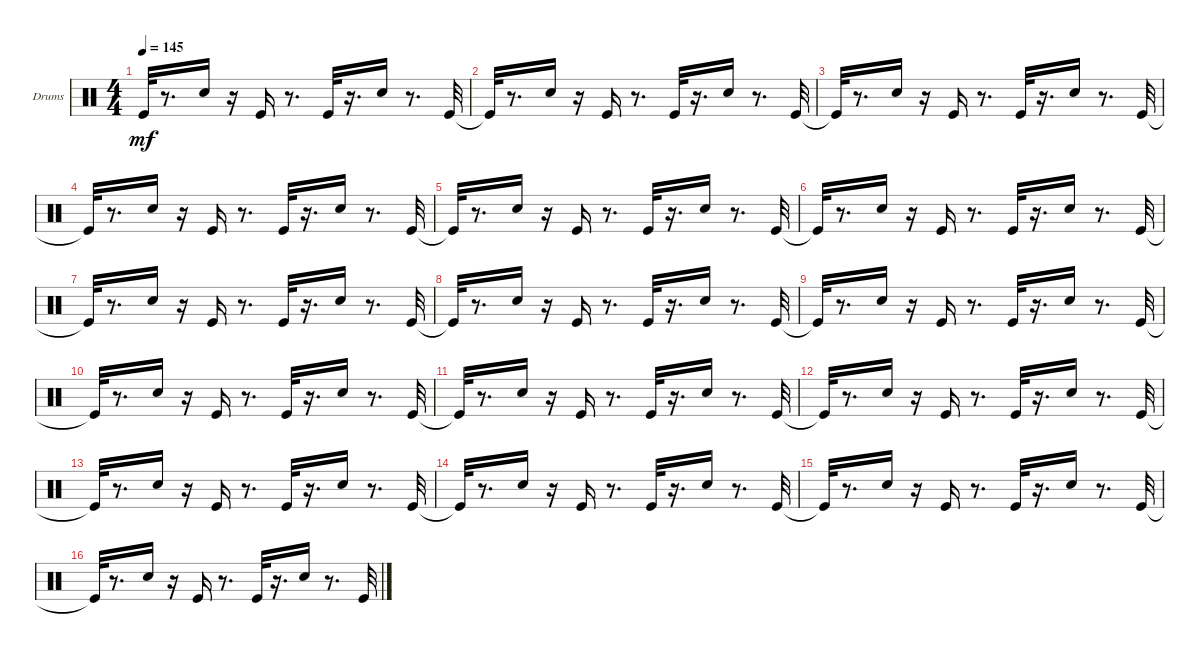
\bracketExtendMode groupsimilarinstruments
\firstSystemTrackNameOrientation horizontal
\otherSystemsTrackNameOrientation horizontal
\track ("Drums" "Drums") {instrument percussion}
\staff {score}
\articulation defaults
\ts (4 4)
\tempo 145
\clef neutral
\ks c "Kick (hit)"{t}.32{dy mf}
r.8{d} "Snare (hit) 2".16 r.16 "Kick (hit)".16 r.8{d} "Kick (hit)".32 r.16{d} "Snare (hit) 2".16 r.8{d} "Kick (hit)".32 |
"Kick (hit)"{t}.32 r.8{d} "Snare (hit) 2".16 r.16 "Kick (hit)".16 r.8{d} "Kick (hit)".32 r.16{d} "Snare (hit) 2".16 r.8{d} "Kick (hit)".32 |
"Kick (hit)"{t}.32 r.8{d} "Snare (hit) 2".16 r.16 "Kick (hit)".16 r.8{d} "Kick (hit)".32 r.16{d} "Snare (hit) 2".16 r.8{d} "Kick (hit)".32 |
"Kick (hit)"{t}.32 r.8{d} "Snare (hit) 2".16 r.16 "Kick (hit)".16 r.8{d} "Kick (hit)".32 r.16{d} "Snare (hit) 2".16 r.8{d} "Kick (hit)".32 |
"Kick (hit)"{t}.32 r.8{d} "Snare (hit) 2".16 r.16 "Kick (hit)".16 r.8{d} "Kick (hit)".32 r.16{d} "Snare (hit) 2".16 r.8{d} "Kick (hit)".32 |
"Kick (hit)"{t}.32 r.8{d} "Snare (hit) 2".16 r.16 "Kick (hit)".16 r.8{d} "Kick (hit)".32 r.16{d} "Snare (hit) 2".16 r.8{d} "Kick (hit)".32 |
"Kick (hit)"{t}.32 r.8{d} "Snare (hit) 2".16 r.16 "Kick (hit)".16 r.8{d} "Kick (hit)".32 r.16{d} "Snare (hit) 2".16 r.8{d} "Kick (hit)".32 |
"Kick (hit)"{t}.32 r.8{d} "Snare (hit) 2".16 r.16 "Kick (hit)".16 r.8{d} "Kick (hit)".32 r.16{d} "Snare (hit) 2".16 r.8{d} "Kick (hit)".32 |
"Kick (hit)"{t}.32 r.8{d} "Snare (hit) 2".16 r.16 "Kick (hit)".16 r.8{d} "Kick (hit)".32 r.16{d} "Snare (hit) 2".16 r.8{d} "Kick (hit)".32 |
"Kick (hit)"{t}.32 r.8{d} "Snare (hit) 2".16 r.16 "Kick (hit)".16 r.8{d} "Kick (hit)".32 r.16{d} "Snare (hit) 2".16 r.8{d} "Kick (hit)".32 |
"Kick (hit)"{t}.32 r.8{d} "Snare (hit) 2".16 r.16 "Kick (hit)".16 r.8{d} "Kick (hit)".32 r.16{d} "Snare (hit) 2".16 r.8{d} "Kick (hit)".32 |
"Kick (hit)"{t}.32 r.8{d} "Snare (hit) 2".16 r.16 "Kick (hit)".16 r.8{d} "Kick (hit)".32 r.16{d} "Snare (hit) 2".16 r.8{d} "Kick (hit)".32 |
"Kick (hit)"{t}.32 r.8{d} "Snare (hit) 2".16 r.16 "Kick (hit)".16 r.8{d} "Kick (hit)".32 r.16{d} "Snare (hit) 2".16 r.8{d} "Kick (hit)".32 |
"Kick (hit)"{t}.32 r.8{d} "Snare (hit) 2".16 r.16 "Kick (hit)".16 r.8{d} "Kick (hit)".32 r.16{d} "Snare (hit) 2".16 r.8{d} "Kick (hit)".32 |
"Kick (hit)"{t}.32 r.8{d} "Snare (hit) 2".16 r.16 "Kick (hit)".16 r.8{d} "Kick (hit)".32 r.16{d} "Snare (hit) 2".16 r.8{d} "Kick (hit)".32 |
"Kick (hit)"{t}.32 r.8{d} "Snare (hit) 2".16 r.16 "Kick (hit)".16 r.8{d} "Kick (hit)".32 r.16{d} "Snare (hit) 2".16 r.8{d} "Kick (hit)".32
